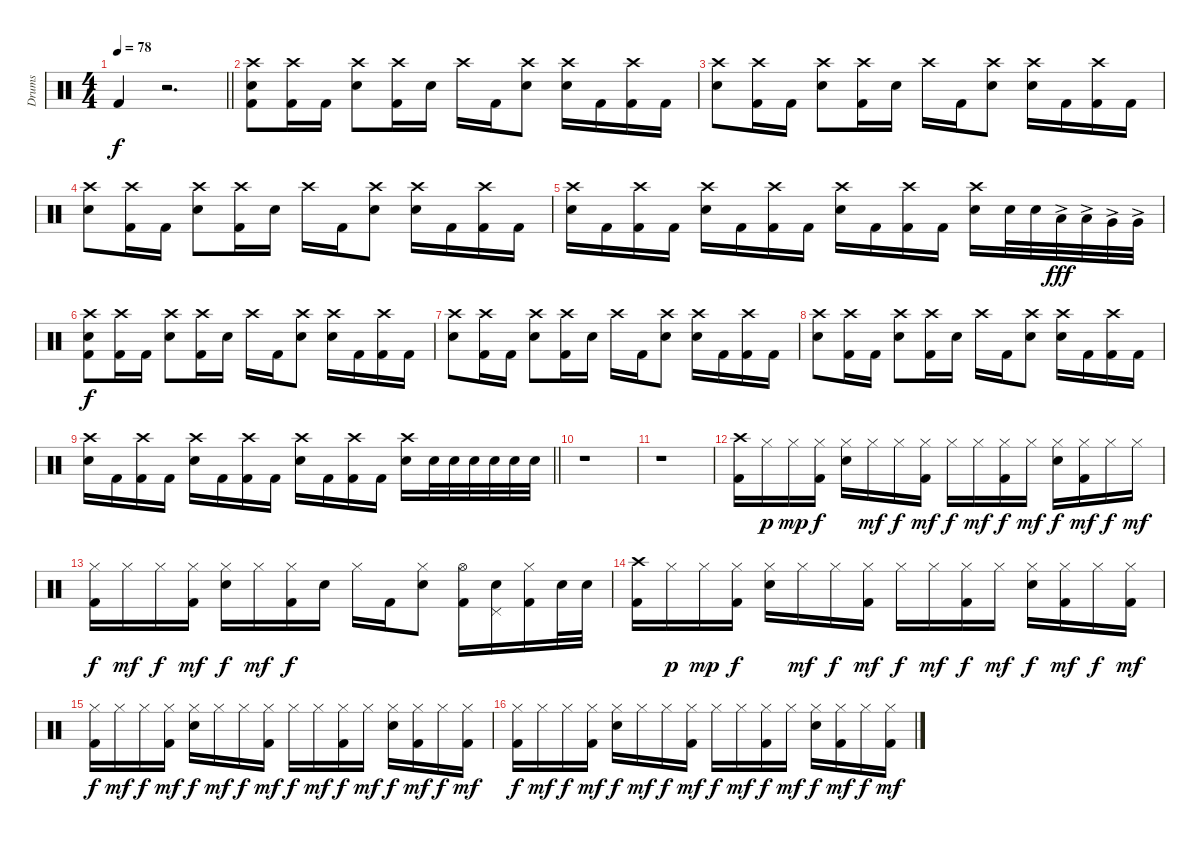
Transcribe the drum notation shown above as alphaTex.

\track ("Drums" "Drums") {instrument percussion}
\staff {score}
\articulation defaults
\ts (4 4)
\tempo 78
\clef neutral
\barLineRight lightlight
\ks c "Kick (hit) 2".4{dy f}
r.2{d} |
("Crash high (hit)" "Snare (hit) 2" "Kick (hit) 2").8 ("Crash high (hit)" "Kick (hit) 2").16 "Kick (hit) 2".16 ("Crash high (hit)" "Snare (hit) 2").8 ("Crash high (hit)" "Kick (hit) 2").16 "Snare (hit) 2".16 "Crash high (hit)".16 "Kick (hit) 2".16 ("Crash high (hit)" "Snare (hit) 2").8 ("Crash high (hit)" "Snare (hit) 2").16 "Kick (hit) 2".16 ("Crash high (hit)" "Kick (hit) 2").16 "Kick (hit) 2".16 |
("Crash high (hit)" "Snare (hit) 2").8 ("Crash high (hit)" "Kick (hit) 2").16 "Kick (hit) 2".16 ("Crash high (hit)" "Snare (hit) 2").8 ("Crash high (hit)" "Kick (hit) 2").16 "Snare (hit) 2".16 "Crash high (hit)".16 "Kick (hit) 2".16 ("Crash high (hit)" "Snare (hit) 2").8 ("Crash high (hit)" "Snare (hit) 2").16 "Kick (hit) 2".16 ("Crash high (hit)" "Kick (hit) 2").16 "Kick (hit) 2".16 |
("Crash high (hit)" "Snare (hit) 2").8 ("Crash high (hit)" "Kick (hit) 2").16 "Kick (hit) 2".16 ("Crash high (hit)" "Snare (hit) 2").8 ("Crash high (hit)" "Kick (hit) 2").16 "Snare (hit) 2".16 "Crash high (hit)".16 "Kick (hit) 2".16 ("Crash high (hit)" "Snare (hit) 2").8 ("Crash high (hit)" "Snare (hit) 2").16 "Kick (hit) 2".16 ("Crash high (hit)" "Kick (hit) 2").16 "Kick (hit) 2".16 |
("Crash high (hit)" "Snare (hit) 2").16 "Kick (hit) 2".16 ("Crash high (hit)" "Kick (hit) 2").16 "Kick (hit) 2".16 ("Crash high (hit)" "Snare (hit) 2").16 "Kick (hit) 2".16 ("Crash high (hit)" "Kick (hit) 2").16 "Kick (hit) 2".16 ("Crash high (hit)" "Snare (hit) 2").16 "Kick (hit) 2".16 ("Crash high (hit)" "Kick (hit) 2").16 "Kick (hit) 2".16 ("Crash high (hit)" "Snare (hit) 2").16 "Snare (hit) 2".32 "Snare (hit) 2".32 "Low Tom (hit)"{ac}.32{dy fff} "Low Tom (hit)"{ac}.32 "Very Low Tom (hit)"{ac}.32 "Very Low Tom (hit)"{ac}.32 |
("Crash high (hit)" "Snare (hit) 2" "Kick (hit) 2").8{dy f} ("Crash high (hit)" "Kick (hit) 2").16 "Kick (hit) 2".16 ("Crash high (hit)" "Snare (hit) 2").8 ("Crash high (hit)" "Kick (hit) 2").16 "Snare (hit) 2".16 "Crash high (hit)".16 "Kick (hit) 2".16 ("Crash high (hit)" "Snare (hit) 2").8 ("Crash high (hit)" "Snare (hit) 2").16 "Kick (hit) 2".16 ("Crash high (hit)" "Kick (hit) 2").16 "Kick (hit) 2".16 |
("Crash high (hit)" "Snare (hit) 2").8 ("Crash high (hit)" "Kick (hit) 2").16 "Kick (hit) 2".16 ("Crash high (hit)" "Snare (hit) 2").8 ("Crash high (hit)" "Kick (hit) 2").16 "Snare (hit) 2".16 "Crash high (hit)".16 "Kick (hit) 2".16 ("Crash high (hit)" "Snare (hit) 2").8 ("Crash high (hit)" "Snare (hit) 2").16 "Kick (hit) 2".16 ("Crash high (hit)" "Kick (hit) 2").16 "Kick (hit) 2".16 |
("Crash high (hit)" "Snare (hit) 2").8 ("Crash high (hit)" "Kick (hit) 2").16 "Kick (hit) 2".16 ("Crash high (hit)" "Snare (hit) 2").8 ("Crash high (hit)" "Kick (hit) 2").16 "Snare (hit) 2".16 "Crash high (hit)".16 "Kick (hit) 2".16 ("Crash high (hit)" "Snare (hit) 2").8 ("Crash high (hit)" "Snare (hit) 2").16 "Kick (hit) 2".16 ("Crash high (hit)" "Kick (hit) 2").16 "Kick (hit) 2".16 |
\barLineRight lightlight
("Crash high (hit)" "Snare (hit) 2").16 "Kick (hit) 2".16 ("Crash high (hit)" "Kick (hit) 2").16 "Kick (hit) 2".16 ("Crash high (hit)" "Snare (hit) 2").16 "Kick (hit) 2".16 ("Crash high (hit)" "Kick (hit) 2").16 "Kick (hit) 2".16 ("Crash high (hit)" "Snare (hit) 2").16 "Kick (hit) 2".16 ("Crash high (hit)" "Kick (hit) 2").16 "Kick (hit) 2".16 ("Crash high (hit)" "Snare (hit) 2").16 "Snare (hit) 2".32 "Snare (hit) 2".32 "Snare (hit) 2".32 "Snare (hit) 2".32 "Snare (hit) 2".32 "Snare (hit) 2".32 |
r.1 |
r.1 |
("Crash high (hit)" "Kick (hit) 2").16 "Hi-Hat (closed)".16{dy p} "Hi-Hat (closed)".16{dy mp} ("Hi-Hat (closed)" "Kick (hit) 2").16{dy f} ("Hi-Hat (closed)" "Snare (hit) 2").16 "Hi-Hat (closed)".16{dy mf} "Hi-Hat (closed)".16{dy f} ("Hi-Hat (closed)" "Kick (hit) 2").16{dy mf} "Hi-Hat (closed)".16{dy f} "Hi-Hat (closed)".16{dy mf} ("Hi-Hat (closed)" "Kick (hit) 2").16{dy f} "Hi-Hat (closed)".16{dy mf} ("Hi-Hat (closed)" "Snare (hit) 2").16{dy f} ("Hi-Hat (closed)" "Kick (hit) 2").16{dy mf} "Hi-Hat (closed)".16{dy f} "Hi-Hat (closed)".16{dy mf} |
("Hi-Hat (closed)" "Kick (hit) 2").16{dy f} "Hi-Hat (closed)".16{dy mf} "Hi-Hat (closed)".16{dy f} ("Hi-Hat (closed)" "Kick (hit) 2").16{dy mf} ("Hi-Hat (closed)" "Snare (hit) 2").16{dy f} "Hi-Hat (closed)".16{dy mf} ("Hi-Hat (closed)" "Kick (hit) 2").16{dy f} "Snare (hit) 2".16 "Hi-Hat (closed)".16 "Kick (hit) 2".16 ("Hi-Hat (closed)" "Snare (hit) 2").8 ("Hi-Hat (open)" "Kick (hit) 2").16 ("Snare (hit) 2" "Pedal Hi-Hat (hit)").16 ("Hi-Hat (closed)" "Kick (hit) 2").16 "Snare (hit) 2".32 "Snare (hit) 2".32 |
("Crash high (hit)" "Kick (hit) 2").16 "Hi-Hat (closed)".16{dy p} "Hi-Hat (closed)".16{dy mp} ("Hi-Hat (closed)" "Kick (hit) 2").16{dy f} ("Hi-Hat (closed)" "Snare (hit) 2").16 "Hi-Hat (closed)".16{dy mf} "Hi-Hat (closed)".16{dy f} ("Hi-Hat (closed)" "Kick (hit) 2").16{dy mf} "Hi-Hat (closed)".16{dy f} "Hi-Hat (closed)".16{dy mf} ("Hi-Hat (closed)" "Kick (hit) 2").16{dy f} "Hi-Hat (closed)".16{dy mf} ("Hi-Hat (closed)" "Snare (hit) 2").16{dy f} ("Hi-Hat (closed)" "Kick (hit) 2").16{dy mf} "Hi-Hat (closed)".16{dy f} ("Hi-Hat (closed)" "Kick (hit) 2").16{dy mf} |
("Hi-Hat (closed)" "Kick (hit) 2").16{dy f} "Hi-Hat (closed)".16{dy mf} "Hi-Hat (closed)".16{dy f} ("Hi-Hat (closed)" "Kick (hit) 2").16{dy mf} ("Hi-Hat (closed)" "Snare (hit) 2").16{dy f} "Hi-Hat (closed)".16{dy mf} "Hi-Hat (closed)".16{dy f} ("Hi-Hat (closed)" "Kick (hit) 2").16{dy mf} "Hi-Hat (closed)".16{dy f} "Hi-Hat (closed)".16{dy mf} ("Hi-Hat (closed)" "Kick (hit) 2").16{dy f} "Hi-Hat (closed)".16{dy mf} ("Hi-Hat (closed)" "Snare (hit) 2").16{dy f} ("Hi-Hat (closed)" "Kick (hit) 2").16{dy mf} "Hi-Hat (closed)".16{dy f} ("Hi-Hat (closed)" "Kick (hit) 2").16{dy mf} |
("Hi-Hat (closed)" "Kick (hit) 2").16{dy f} "Hi-Hat (closed)".16{dy mf} "Hi-Hat (closed)".16{dy f} ("Hi-Hat (closed)" "Kick (hit) 2").16{dy mf} ("Hi-Hat (closed)" "Snare (hit) 2").16{dy f} "Hi-Hat (closed)".16{dy mf} "Hi-Hat (closed)".16{dy f} ("Hi-Hat (closed)" "Kick (hit) 2").16{dy mf} "Hi-Hat (closed)".16{dy f} "Hi-Hat (closed)".16{dy mf} ("Hi-Hat (closed)" "Kick (hit) 2").16{dy f} "Hi-Hat (closed)".16{dy mf} ("Hi-Hat (closed)" "Snare (hit) 2").16{dy f} ("Hi-Hat (closed)" "Kick (hit) 2").16{dy mf} "Hi-Hat (closed)".16{dy f} ("Hi-Hat (closed)" "Kick (hit) 2").16{dy mf}
